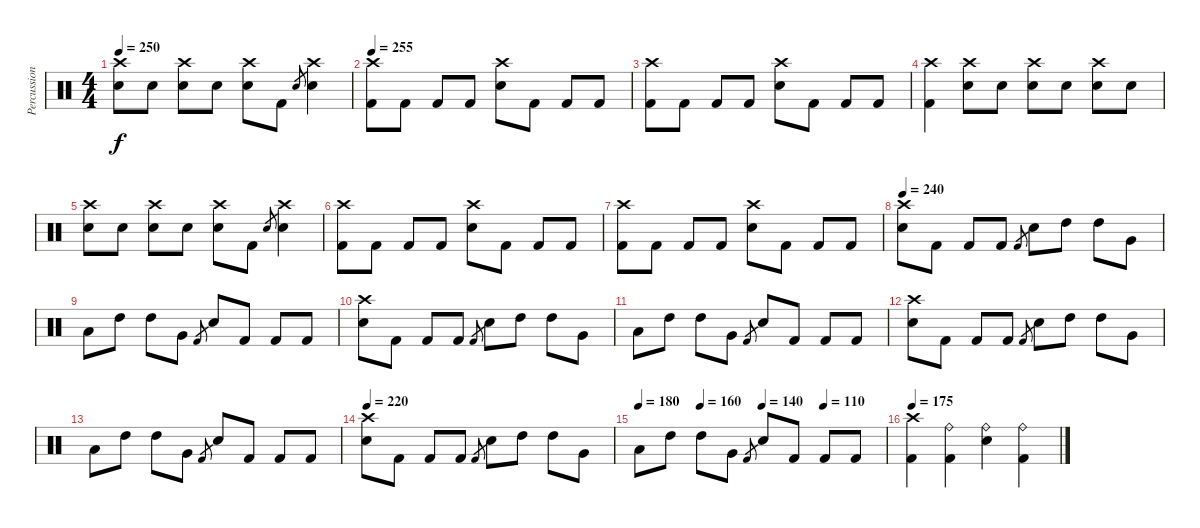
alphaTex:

\track ("Percussion" "Percussion") {instrument percussion}
\staff {score}
\articulation defaults
\ts (4 4)
\tempo 250
\clef neutral
\ks c
("Crash high (hit)" "Electric Snare (hit)").8{dy f} "Electric Snare (hit)".8 ("Crash high (hit)" "Electric Snare (hit)").8 "Electric Snare (hit)".8 ("Crash high (hit)" "Electric Snare (hit)").8 "Kick (hit) 2".8 "Electric Snare (hit)".8{gr} ("Crash high (hit)" "Electric Snare (hit)").4 |
\tempo 255
("Crash high (hit)" "Kick (hit) 2").8 "Kick (hit) 2".8 "Kick (hit) 2".8 "Kick (hit) 2".8 ("Crash high (hit)" "Electric Snare (hit)").8 "Kick (hit) 2".8 "Kick (hit) 2".8 "Kick (hit) 2".8 |
("Crash high (hit)" "Kick (hit) 2").8 "Kick (hit) 2".8 "Kick (hit) 2".8 "Kick (hit) 2".8 ("Crash high (hit)" "Electric Snare (hit)").8 "Kick (hit) 2".8 "Kick (hit) 2".8 "Kick (hit) 2".8 |
("Crash high (hit)" "Kick (hit) 2").4 ("Crash high (hit)" "Electric Snare (hit)").8 "Electric Snare (hit)".8 ("Crash high (hit)" "Electric Snare (hit)").8 "Electric Snare (hit)".8 ("Crash high (hit)" "Electric Snare (hit)").8 "Electric Snare (hit)".8 |
("Crash high (hit)" "Electric Snare (hit)").8 "Electric Snare (hit)".8 ("Crash high (hit)" "Electric Snare (hit)").8 "Electric Snare (hit)".8 ("Crash high (hit)" "Electric Snare (hit)").8 "Kick (hit) 2".8 "Electric Snare (hit)".8{gr} ("Crash high (hit)" "Electric Snare (hit)").4 |
("Crash high (hit)" "Kick (hit) 2").8 "Kick (hit) 2".8 "Kick (hit) 2".8 "Kick (hit) 2".8 ("Crash high (hit)" "Electric Snare (hit)").8 "Kick (hit) 2".8 "Kick (hit) 2".8 "Kick (hit) 2".8 |
("Crash high (hit)" "Kick (hit) 2").8 "Kick (hit) 2".8 "Kick (hit) 2".8 "Kick (hit) 2".8 ("Crash high (hit)" "Electric Snare (hit)").8 "Kick (hit) 2".8 "Kick (hit) 2".8 "Kick (hit) 2".8 |
\tempo 240
("Crash high (hit)" "Electric Snare (hit)").8 "Kick (hit) 2".8 "Kick (hit) 2".8 "Kick (hit) 2".8 "Kick (hit) 2".8{gr} "Electric Snare (hit)".8 "High Tom (hit)".8 "High Tom (hit)".8 "Very Low Tom (hit)".8 |
"Low Floor Tom (hit)".8 "High Tom (hit)".8 "High Tom (hit)".8 "Very Low Tom (hit)".8 "Kick (hit) 2".8{gr} "Electric Snare (hit)".8 "Kick (hit) 2".8 "Kick (hit) 2".8 "Kick (hit) 2".8 |
("Crash high (hit)" "Electric Snare (hit)").8 "Kick (hit) 2".8 "Kick (hit) 2".8 "Kick (hit) 2".8 "Kick (hit) 2".8{gr} "Electric Snare (hit)".8 "High Tom (hit)".8 "High Tom (hit)".8 "Very Low Tom (hit)".8 |
"Low Floor Tom (hit)".8 "High Tom (hit)".8 "High Tom (hit)".8 "Very Low Tom (hit)".8 "Kick (hit) 2".8{gr} "Electric Snare (hit)".8 "Kick (hit) 2".8 "Kick (hit) 2".8 "Kick (hit) 2".8 |
("Crash high (hit)" "Electric Snare (hit)").8 "Kick (hit) 2".8 "Kick (hit) 2".8 "Kick (hit) 2".8 "Kick (hit) 2".8{gr} "Electric Snare (hit)".8 "High Tom (hit)".8 "High Tom (hit)".8 "Very Low Tom (hit)".8 |
"Low Floor Tom (hit)".8 "High Tom (hit)".8 "High Tom (hit)".8 "Very Low Tom (hit)".8 "Kick (hit) 2".8{gr} "Electric Snare (hit)".8 "Kick (hit) 2".8 "Kick (hit) 2".8 "Kick (hit) 2".8 |
\tempo 220
("Crash high (hit)" "Electric Snare (hit)").8 "Kick (hit) 2".8 "Kick (hit) 2".8 "Kick (hit) 2".8 "Kick (hit) 2".8{gr} "Electric Snare (hit)".8 "High Tom (hit)".8 "High Tom (hit)".8 "Very Low Tom (hit)".8 |
\tempo 180
\tempo (160 0.25)
\tempo (140 0.5)
\tempo (110 0.75)
"Low Floor Tom (hit)".8 "High Tom (hit)".8 "High Tom (hit)".8 "Very Low Tom (hit)".8 "Kick (hit) 2".8{gr} "Electric Snare (hit)".8 "Kick (hit) 2".8 "Kick (hit) 2".8 "Kick (hit) 2".8 |
\tempo 175
("Crash high (hit)" "Kick (hit) 2").4 ("Ride (bell)" "Kick (hit) 2").4 ("Ride (bell)" "Electric Snare (hit)").4 ("Ride (bell)" "Kick (hit) 2").4
